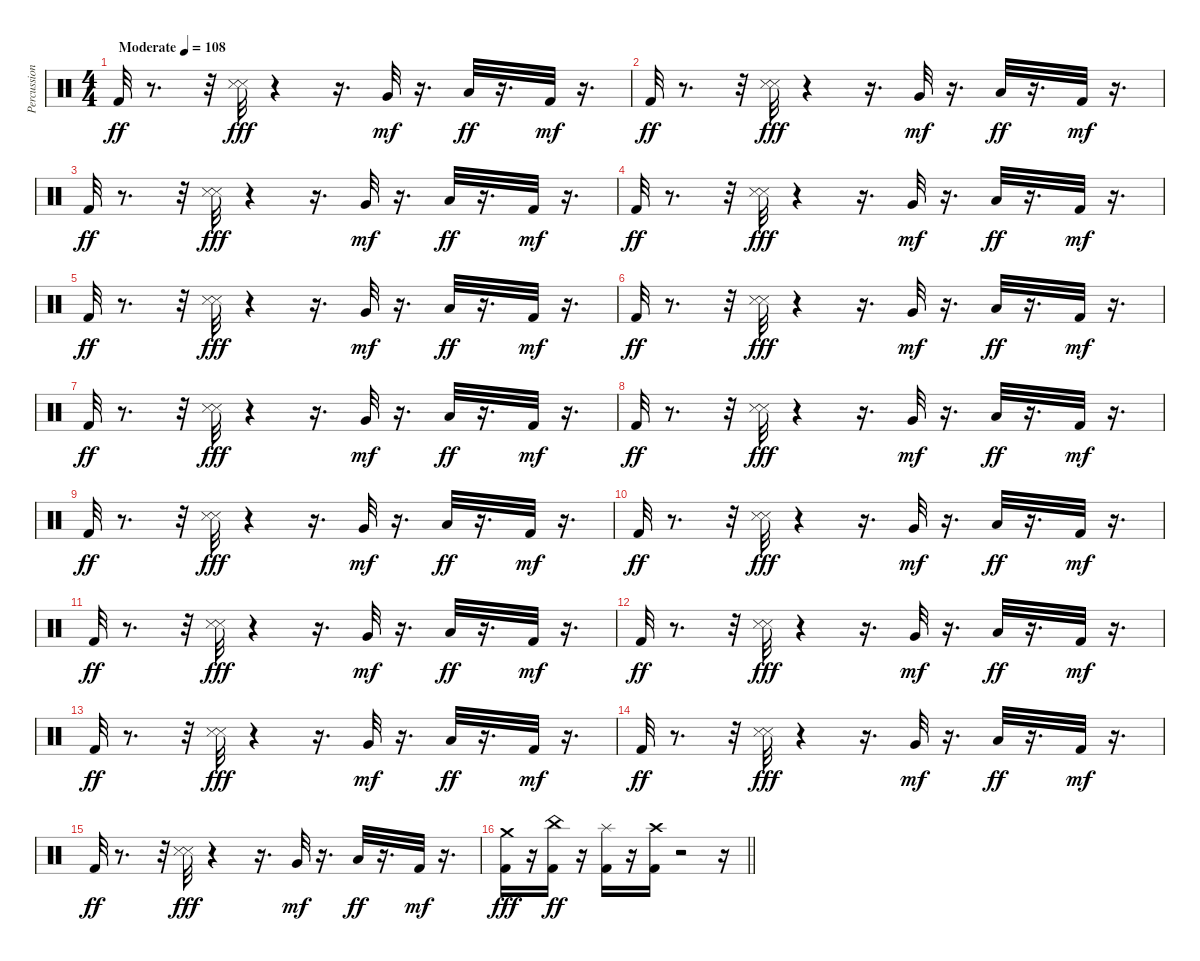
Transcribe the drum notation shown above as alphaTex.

\track ("Percussion" "Percussion") {instrument percussion}
\staff {score}
\articulation defaults
\ts (4 4)
\tempo (108 "Moderate")
\clef neutral
\ks c "Kick (hit) 2".32{dy ff volume 12}
r.8{d} r.32 ("Metronome (hit)" "Metronome (hit)").32{dy fff} r.4 r.16{d} "Very Low Tom (hit)".32{dy mf} r.16{d} "Low Tom (hit)".32{dy ff} r.16{d} "Kick (hit) 2".32{dy mf} r.16{d} |
"Kick (hit) 2".32{dy ff volume 12} r.8{d} r.32 ("Metronome (hit)" "Metronome (hit)").32{dy fff} r.4 r.16{d} "Very Low Tom (hit)".32{dy mf} r.16{d} "Low Tom (hit)".32{dy ff} r.16{d} "Kick (hit) 2".32{dy mf} r.16{d} |
"Kick (hit) 2".32{dy ff volume 12} r.8{d} r.32 ("Metronome (hit)" "Metronome (hit)").32{dy fff} r.4 r.16{d} "Very Low Tom (hit)".32{dy mf} r.16{d} "Low Tom (hit)".32{dy ff} r.16{d} "Kick (hit) 2".32{dy mf} r.16{d} |
"Kick (hit) 2".32{dy ff volume 12} r.8{d} r.32 ("Metronome (hit)" "Metronome (hit)").32{dy fff} r.4 r.16{d} "Very Low Tom (hit)".32{dy mf} r.16{d} "Low Tom (hit)".32{dy ff} r.16{d} "Kick (hit) 2".32{dy mf} r.16{d} |
"Kick (hit) 2".32{dy ff volume 12} r.8{d} r.32 ("Metronome (hit)" "Metronome (hit)").32{dy fff} r.4 r.16{d} "Very Low Tom (hit)".32{dy mf} r.16{d} "Low Tom (hit)".32{dy ff} r.16{d} "Kick (hit) 2".32{dy mf} r.16{d} |
"Kick (hit) 2".32{dy ff volume 12} r.8{d} r.32 ("Metronome (hit)" "Metronome (hit)").32{dy fff} r.4 r.16{d} "Very Low Tom (hit)".32{dy mf} r.16{d} "Low Tom (hit)".32{dy ff} r.16{d} "Kick (hit) 2".32{dy mf} r.16{d} |
"Kick (hit) 2".32{dy ff volume 12} r.8{d} r.32 ("Metronome (hit)" "Metronome (hit)").32{dy fff} r.4 r.16{d} "Very Low Tom (hit)".32{dy mf} r.16{d} "Low Tom (hit)".32{dy ff} r.16{d} "Kick (hit) 2".32{dy mf} r.16{d} |
"Kick (hit) 2".32{dy ff volume 12} r.8{d} r.32 ("Metronome (hit)" "Metronome (hit)").32{dy fff} r.4 r.16{d} "Very Low Tom (hit)".32{dy mf} r.16{d} "Low Tom (hit)".32{dy ff} r.16{d} "Kick (hit) 2".32{dy mf} r.16{d} |
"Kick (hit) 2".32{dy ff volume 12} r.8{d} r.32 ("Metronome (hit)" "Metronome (hit)").32{dy fff} r.4 r.16{d} "Very Low Tom (hit)".32{dy mf} r.16{d} "Low Tom (hit)".32{dy ff} r.16{d} "Kick (hit) 2".32{dy mf} r.16{d} |
"Kick (hit) 2".32{dy ff volume 12} r.8{d} r.32 ("Metronome (hit)" "Metronome (hit)").32{dy fff} r.4 r.16{d} "Very Low Tom (hit)".32{dy mf} r.16{d} "Low Tom (hit)".32{dy ff} r.16{d} "Kick (hit) 2".32{dy mf} r.16{d} |
"Kick (hit) 2".32{dy ff volume 12} r.8{d} r.32 ("Metronome (hit)" "Metronome (hit)").32{dy fff} r.4 r.16{d} "Very Low Tom (hit)".32{dy mf} r.16{d} "Low Tom (hit)".32{dy ff} r.16{d} "Kick (hit) 2".32{dy mf} r.16{d} |
"Kick (hit) 2".32{dy ff volume 12} r.8{d} r.32 ("Metronome (hit)" "Metronome (hit)").32{dy fff} r.4 r.16{d} "Very Low Tom (hit)".32{dy mf} r.16{d} "Low Tom (hit)".32{dy ff} r.16{d} "Kick (hit) 2".32{dy mf} r.16{d} |
"Kick (hit) 2".32{dy ff volume 12} r.8{d} r.32 ("Metronome (hit)" "Metronome (hit)").32{dy fff} r.4 r.16{d} "Very Low Tom (hit)".32{dy mf} r.16{d} "Low Tom (hit)".32{dy ff} r.16{d} "Kick (hit) 2".32{dy mf} r.16{d} |
"Kick (hit) 2".32{dy ff volume 12} r.8{d} r.32 ("Metronome (hit)" "Metronome (hit)").32{dy fff} r.4 r.16{d} "Very Low Tom (hit)".32{dy mf} r.16{d} "Low Tom (hit)".32{dy ff} r.16{d} "Kick (hit) 2".32{dy mf} r.16{d} |
"Kick (hit) 2".32{dy ff volume 12} r.8{d} r.32 ("Metronome (hit)" "Metronome (hit)").32{dy fff} r.4 r.16{d} "Very Low Tom (hit)".32{dy mf} r.16{d} "Low Tom (hit)".32{dy ff} r.16{d} "Kick (hit) 2".32{dy mf} r.16{d} |
\barLineRight lightlight
("Kick (hit) 2" "Crash medium (hit)").16{dy fff} r.16 ("Kick (hit) 2" "China (hit)").16{dy ff} r.16 ("Kick (hit) 2" "Splash (hit)").16 r.16 ("Kick (hit) 2" "Crash high (hit)").16 r.2 r.16
